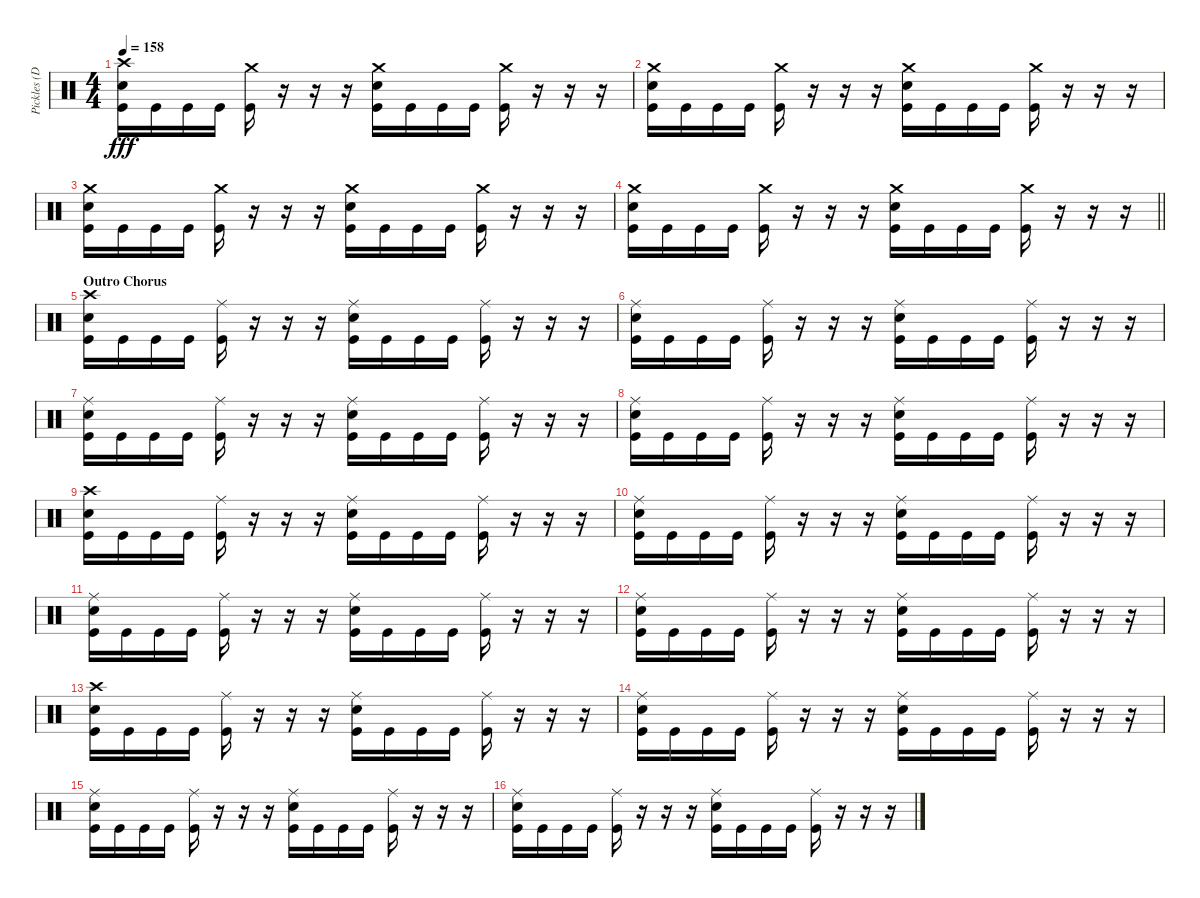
\track ("Pickles (Drums)" "Pickles (D") {instrument percussion}
\staff {score}
\articulation defaults
\ts (4 4)
\tempo 158
\clef neutral
\ks c
("Crash high (hit)" "Snare (hit) 2" "Kick (hit)").16{dy fff} "Kick (hit)".16 "Kick (hit)".16 "Kick (hit)".16 ("Crash medium (hit)" "Kick (hit)").16 r.16 r.16 r.16 ("Crash medium (hit)" "Snare (hit) 2" "Kick (hit)").16 "Kick (hit)".16 "Kick (hit)".16 "Kick (hit)".16 ("Crash medium (hit)" "Kick (hit)").16 r.16 r.16 r.16 |
("Crash medium (hit)" "Snare (hit) 2" "Kick (hit)").16 "Kick (hit)".16 "Kick (hit)".16 "Kick (hit)".16 ("Crash medium (hit)" "Kick (hit)").16 r.16 r.16 r.16 ("Crash medium (hit)" "Snare (hit) 2" "Kick (hit)").16 "Kick (hit)".16 "Kick (hit)".16 "Kick (hit)".16 ("Crash medium (hit)" "Kick (hit)").16 r.16 r.16 r.16 |
("Crash medium (hit)" "Snare (hit) 2" "Kick (hit)").16 "Kick (hit)".16 "Kick (hit)".16 "Kick (hit)".16 ("Crash medium (hit)" "Kick (hit)").16 r.16 r.16 r.16 ("Crash medium (hit)" "Snare (hit) 2" "Kick (hit)").16 "Kick (hit)".16 "Kick (hit)".16 "Kick (hit)".16 ("Crash medium (hit)" "Kick (hit)").16 r.16 r.16 r.16 |
\barLineRight lightlight
("Crash medium (hit)" "Snare (hit) 2" "Kick (hit)").16 "Kick (hit)".16 "Kick (hit)".16 "Kick (hit)".16 ("Crash medium (hit)" "Kick (hit)").16 r.16 r.16 r.16 ("Crash medium (hit)" "Snare (hit) 2" "Kick (hit)").16 "Kick (hit)".16 "Kick (hit)".16 "Kick (hit)".16 ("Crash medium (hit)" "Kick (hit)").16 r.16 r.16 r.16 |
\section ("" "Outro Chorus")
("Crash high (hit)" "Snare (hit) 2" "Kick (hit)").16 "Kick (hit)".16 "Kick (hit)".16 "Kick (hit)".16 ("Ride (middle)" "Kick (hit)").16 r.16 r.16 r.16 ("Ride (middle)" "Snare (hit) 2" "Kick (hit)").16 "Kick (hit)".16 "Kick (hit)".16 "Kick (hit)".16 ("Ride (middle)" "Kick (hit)").16 r.16 r.16 r.16 |
("Ride (middle)" "Snare (hit) 2" "Kick (hit)").16 "Kick (hit)".16 "Kick (hit)".16 "Kick (hit)".16 ("Ride (middle)" "Kick (hit)").16 r.16 r.16 r.16 ("Ride (middle)" "Snare (hit) 2" "Kick (hit)").16 "Kick (hit)".16 "Kick (hit)".16 "Kick (hit)".16 ("Ride (middle)" "Kick (hit)").16 r.16 r.16 r.16 |
("Ride (middle)" "Snare (hit) 2" "Kick (hit)").16 "Kick (hit)".16 "Kick (hit)".16 "Kick (hit)".16 ("Ride (middle)" "Kick (hit)").16 r.16 r.16 r.16 ("Ride (middle)" "Snare (hit) 2" "Kick (hit)").16 "Kick (hit)".16 "Kick (hit)".16 "Kick (hit)".16 ("Ride (middle)" "Kick (hit)").16 r.16 r.16 r.16 |
("Ride (middle)" "Snare (hit) 2" "Kick (hit)").16 "Kick (hit)".16 "Kick (hit)".16 "Kick (hit)".16 ("Ride (middle)" "Kick (hit)").16 r.16 r.16 r.16 ("Ride (middle)" "Snare (hit) 2" "Kick (hit)").16 "Kick (hit)".16 "Kick (hit)".16 "Kick (hit)".16 ("Ride (middle)" "Kick (hit)").16 r.16 r.16 r.16 |
("Crash high (hit)" "Snare (hit) 2" "Kick (hit)").16 "Kick (hit)".16 "Kick (hit)".16 "Kick (hit)".16 ("Ride (middle)" "Kick (hit)").16 r.16 r.16 r.16 ("Ride (middle)" "Snare (hit) 2" "Kick (hit)").16 "Kick (hit)".16 "Kick (hit)".16 "Kick (hit)".16 ("Ride (middle)" "Kick (hit)").16 r.16 r.16 r.16 |
("Ride (middle)" "Snare (hit) 2" "Kick (hit)").16 "Kick (hit)".16 "Kick (hit)".16 "Kick (hit)".16 ("Ride (middle)" "Kick (hit)").16 r.16 r.16 r.16 ("Ride (middle)" "Snare (hit) 2" "Kick (hit)").16 "Kick (hit)".16 "Kick (hit)".16 "Kick (hit)".16 ("Ride (middle)" "Kick (hit)").16 r.16 r.16 r.16 |
("Ride (middle)" "Snare (hit) 2" "Kick (hit)").16 "Kick (hit)".16 "Kick (hit)".16 "Kick (hit)".16 ("Ride (middle)" "Kick (hit)").16 r.16 r.16 r.16 ("Ride (middle)" "Snare (hit) 2" "Kick (hit)").16 "Kick (hit)".16 "Kick (hit)".16 "Kick (hit)".16 ("Ride (middle)" "Kick (hit)").16 r.16 r.16 r.16 |
("Ride (middle)" "Snare (hit) 2" "Kick (hit)").16 "Kick (hit)".16 "Kick (hit)".16 "Kick (hit)".16 ("Ride (middle)" "Kick (hit)").16 r.16 r.16 r.16 ("Ride (middle)" "Snare (hit) 2" "Kick (hit)").16 "Kick (hit)".16 "Kick (hit)".16 "Kick (hit)".16 ("Ride (middle)" "Kick (hit)").16 r.16 r.16 r.16 |
("Crash high (hit)" "Snare (hit) 2" "Kick (hit)").16 "Kick (hit)".16 "Kick (hit)".16 "Kick (hit)".16 ("Ride (middle)" "Kick (hit)").16 r.16 r.16 r.16 ("Ride (middle)" "Snare (hit) 2" "Kick (hit)").16 "Kick (hit)".16 "Kick (hit)".16 "Kick (hit)".16 ("Ride (middle)" "Kick (hit)").16 r.16 r.16 r.16 |
("Ride (middle)" "Snare (hit) 2" "Kick (hit)").16 "Kick (hit)".16 "Kick (hit)".16 "Kick (hit)".16 ("Ride (middle)" "Kick (hit)").16 r.16 r.16 r.16 ("Ride (middle)" "Snare (hit) 2" "Kick (hit)").16 "Kick (hit)".16 "Kick (hit)".16 "Kick (hit)".16 ("Ride (middle)" "Kick (hit)").16 r.16 r.16 r.16 |
("Ride (middle)" "Snare (hit) 2" "Kick (hit)").16 "Kick (hit)".16 "Kick (hit)".16 "Kick (hit)".16 ("Ride (middle)" "Kick (hit)").16 r.16 r.16 r.16 ("Ride (middle)" "Snare (hit) 2" "Kick (hit)").16 "Kick (hit)".16 "Kick (hit)".16 "Kick (hit)".16 ("Ride (middle)" "Kick (hit)").16 r.16 r.16 r.16 |
("Ride (middle)" "Snare (hit) 2" "Kick (hit)").16 "Kick (hit)".16 "Kick (hit)".16 "Kick (hit)".16 ("Ride (middle)" "Kick (hit)").16 r.16 r.16 r.16 ("Ride (middle)" "Snare (hit) 2" "Kick (hit)").16 "Kick (hit)".16 "Kick (hit)".16 "Kick (hit)".16 ("Ride (middle)" "Kick (hit)").16 r.16 r.16 r.16
